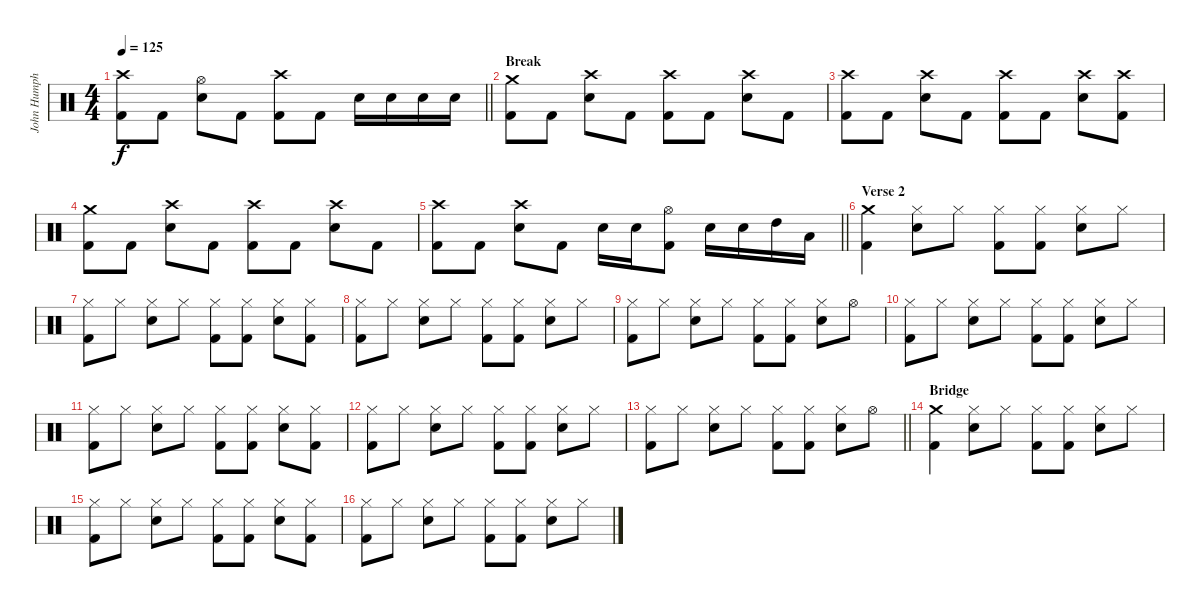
\track ("John Humphrey - Drums" "John Humph") {instrument percussion}
\staff {score}
\articulation defaults
\ts (4 4)
\tempo 125
\clef neutral
\barLineRight lightlight
\ks c
("Crash high (hit)" "Kick (hit) 2").8{dy f} "Kick (hit) 2".8 ("Hi-Hat (open)" "Electric Snare (hit)").8 "Kick (hit) 2".8 ("Crash high (hit)" "Kick (hit) 2").8 "Kick (hit) 2".8 "Electric Snare (hit)".16 "Electric Snare (hit)".16 "Electric Snare (hit)".16 "Electric Snare (hit)".16 |
\section ("" "Break")
("Crash medium (hit)" "Kick (hit) 2").8 "Kick (hit) 2".8 ("Crash high (hit)" "Electric Snare (hit)").8 "Kick (hit) 2".8 ("Crash high (hit)" "Kick (hit) 2").8 "Kick (hit) 2".8 ("Crash high (hit)" "Electric Snare (hit)").8 "Kick (hit) 2".8 |
("Crash high (hit)" "Kick (hit) 2").8 "Kick (hit) 2".8 ("Crash high (hit)" "Electric Snare (hit)").8 "Kick (hit) 2".8 ("Crash high (hit)" "Kick (hit) 2").8 "Kick (hit) 2".8 ("Crash high (hit)" "Electric Snare (hit)").8 ("Crash high (hit)" "Kick (hit) 2").8 |
("Crash medium (hit)" "Kick (hit) 2").8 "Kick (hit) 2".8 ("Crash high (hit)" "Electric Snare (hit)").8 "Kick (hit) 2".8 ("Crash high (hit)" "Kick (hit) 2").8 "Kick (hit) 2".8 ("Crash high (hit)" "Electric Snare (hit)").8 "Kick (hit) 2".8 |
\barLineRight lightlight
("Crash high (hit)" "Kick (hit) 2").8 "Kick (hit) 2".8 ("Crash high (hit)" "Electric Snare (hit)").8 "Kick (hit) 2".8 "Electric Snare (hit)".16 "Electric Snare (hit)".16 ("Hi-Hat (open)" "Kick (hit) 2").8 "Electric Snare (hit)".16 "Electric Snare (hit)".16 "High Tom (hit)".16 "Low Tom (hit)".16 |
\section ("" "Verse 2")
("Crash medium (hit)" "Kick (hit) 2").4 ("Hi-Hat (closed)" "Electric Snare (hit)").8 "Hi-Hat (closed)".8 ("Hi-Hat (closed)" "Kick (hit) 2").8 ("Hi-Hat (closed)" "Kick (hit) 2").8 ("Hi-Hat (closed)" "Electric Snare (hit)").8 "Hi-Hat (closed)".8 |
("Hi-Hat (closed)" "Kick (hit) 2").8 "Hi-Hat (closed)".8 ("Hi-Hat (closed)" "Electric Snare (hit)").8 "Hi-Hat (closed)".8 ("Hi-Hat (closed)" "Kick (hit) 2").8 ("Hi-Hat (closed)" "Kick (hit) 2").8 ("Hi-Hat (closed)" "Electric Snare (hit)").8 ("Hi-Hat (closed)" "Kick (hit) 2").8 |
("Hi-Hat (closed)" "Kick (hit) 2").8 "Hi-Hat (closed)".8 ("Hi-Hat (closed)" "Electric Snare (hit)").8 "Hi-Hat (closed)".8 ("Hi-Hat (closed)" "Kick (hit) 2").8 ("Hi-Hat (closed)" "Kick (hit) 2").8 ("Hi-Hat (closed)" "Electric Snare (hit)").8 "Hi-Hat (closed)".8 |
("Hi-Hat (closed)" "Kick (hit) 2").8 "Hi-Hat (closed)".8 ("Hi-Hat (closed)" "Electric Snare (hit)").8 "Hi-Hat (closed)".8 ("Hi-Hat (closed)" "Kick (hit) 2").8 ("Hi-Hat (closed)" "Kick (hit) 2").8 ("Hi-Hat (closed)" "Electric Snare (hit)").8 "Hi-Hat (open)".8 |
("Hi-Hat (closed)" "Kick (hit) 2").8 "Hi-Hat (closed)".8 ("Hi-Hat (closed)" "Electric Snare (hit)").8 "Hi-Hat (closed)".8 ("Hi-Hat (closed)" "Kick (hit) 2").8 ("Hi-Hat (closed)" "Kick (hit) 2").8 ("Hi-Hat (closed)" "Electric Snare (hit)").8 "Hi-Hat (closed)".8 |
("Hi-Hat (closed)" "Kick (hit) 2").8 "Hi-Hat (closed)".8 ("Hi-Hat (closed)" "Electric Snare (hit)").8 "Hi-Hat (closed)".8 ("Hi-Hat (closed)" "Kick (hit) 2").8 ("Hi-Hat (closed)" "Kick (hit) 2").8 ("Hi-Hat (closed)" "Electric Snare (hit)").8 ("Hi-Hat (closed)" "Kick (hit) 2").8 |
("Hi-Hat (closed)" "Kick (hit) 2").8 "Hi-Hat (closed)".8 ("Hi-Hat (closed)" "Electric Snare (hit)").8 "Hi-Hat (closed)".8 ("Hi-Hat (closed)" "Kick (hit) 2").8 ("Hi-Hat (closed)" "Kick (hit) 2").8 ("Hi-Hat (closed)" "Electric Snare (hit)").8 "Hi-Hat (closed)".8 |
\barLineRight lightlight
("Hi-Hat (closed)" "Kick (hit) 2").8 "Hi-Hat (closed)".8 ("Hi-Hat (closed)" "Electric Snare (hit)").8 "Hi-Hat (closed)".8 ("Hi-Hat (closed)" "Kick (hit) 2").8 ("Hi-Hat (closed)" "Kick (hit) 2").8 ("Hi-Hat (closed)" "Electric Snare (hit)").8 "Hi-Hat (open)".8 |
\section ("" "Bridge")
("Crash medium (hit)" "Kick (hit) 2").4 ("Hi-Hat (closed)" "Electric Snare (hit)").8 "Hi-Hat (closed)".8 ("Hi-Hat (closed)" "Kick (hit) 2").8 ("Hi-Hat (closed)" "Kick (hit) 2").8 ("Hi-Hat (closed)" "Electric Snare (hit)").8 "Hi-Hat (closed)".8 |
("Hi-Hat (closed)" "Kick (hit) 2").8 "Hi-Hat (closed)".8 ("Hi-Hat (closed)" "Electric Snare (hit)").8 "Hi-Hat (closed)".8 ("Hi-Hat (closed)" "Kick (hit) 2").8 ("Hi-Hat (closed)" "Kick (hit) 2").8 ("Hi-Hat (closed)" "Electric Snare (hit)").8 ("Hi-Hat (closed)" "Kick (hit) 2").8 |
("Hi-Hat (closed)" "Kick (hit) 2").8 "Hi-Hat (closed)".8 ("Hi-Hat (closed)" "Electric Snare (hit)").8 "Hi-Hat (closed)".8 ("Hi-Hat (closed)" "Kick (hit) 2").8 ("Hi-Hat (closed)" "Kick (hit) 2").8 ("Hi-Hat (closed)" "Electric Snare (hit)").8 "Hi-Hat (closed)".8
